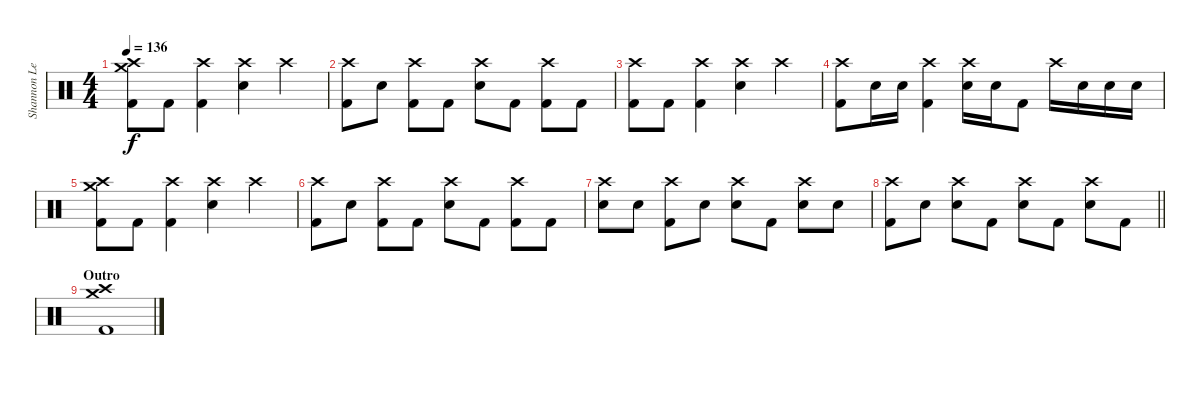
\track ("Shannon Leto [Drums]" "Shannon Le") {instrument percussion}
\staff {score}
\articulation defaults
\ts (4 4)
\tempo 136
\clef neutral
\ks c
("Crash high (hit)" "Crash medium (hit)" "Kick (hit) 2").8{dy f} "Kick (hit) 2".8 ("Crash high (hit)" "Kick (hit) 2").4 ("Crash high (hit)" "Electric Snare (hit)").4 "Crash high (hit)".4 |
("Crash high (hit)" "Kick (hit) 2").8 "Electric Snare (hit)".8 ("Crash high (hit)" "Kick (hit) 2").8 "Kick (hit) 2".8 ("Crash high (hit)" "Electric Snare (hit)").8 "Kick (hit) 2".8 ("Crash high (hit)" "Kick (hit) 2").8 "Kick (hit) 2".8 |
("Crash high (hit)" "Kick (hit) 2").8 "Kick (hit) 2".8 ("Crash high (hit)" "Kick (hit) 2").4 ("Crash high (hit)" "Electric Snare (hit)").4 "Crash high (hit)".4 |
("Crash high (hit)" "Kick (hit) 2").8 "Electric Snare (hit)".16 "Electric Snare (hit)".16 ("Crash high (hit)" "Kick (hit) 2").4 ("Crash high (hit)" "Electric Snare (hit)").16 "Electric Snare (hit)".16 "Kick (hit) 2".8 "Crash high (hit)".16 "Electric Snare (hit)".16 "Electric Snare (hit)".16 "Electric Snare (hit)".16 |
("Crash high (hit)" "Crash medium (hit)" "Kick (hit) 2").8 "Kick (hit) 2".8 ("Crash high (hit)" "Kick (hit) 2").4 ("Crash high (hit)" "Electric Snare (hit)").4 "Crash high (hit)".4 |
("Crash high (hit)" "Kick (hit) 2").8 "Electric Snare (hit)".8 ("Crash high (hit)" "Kick (hit) 2").8 "Kick (hit) 2".8 ("Crash high (hit)" "Electric Snare (hit)").8 "Kick (hit) 2".8 ("Crash high (hit)" "Kick (hit) 2").8 "Kick (hit) 2".8 |
("Crash high (hit)" "Electric Snare (hit)").8 "Electric Snare (hit)".8 ("Crash high (hit)" "Kick (hit) 2").8 "Electric Snare (hit)".8 ("Crash high (hit)" "Electric Snare (hit)").8 "Kick (hit) 2".8 ("Crash high (hit)" "Electric Snare (hit)").8 "Electric Snare (hit)".8 |
\barLineRight lightlight
("Crash high (hit)" "Kick (hit) 2").8 "Electric Snare (hit)".8 ("Crash high (hit)" "Electric Snare (hit)").8 "Kick (hit) 2".8 ("Crash high (hit)" "Electric Snare (hit)").8 "Kick (hit) 2".8 ("Crash high (hit)" "Electric Snare (hit)").8 "Kick (hit) 2".8 |
\section ("" "Outro")
("Crash high (hit)" "Crash medium (hit)" "Kick (hit) 2").1
